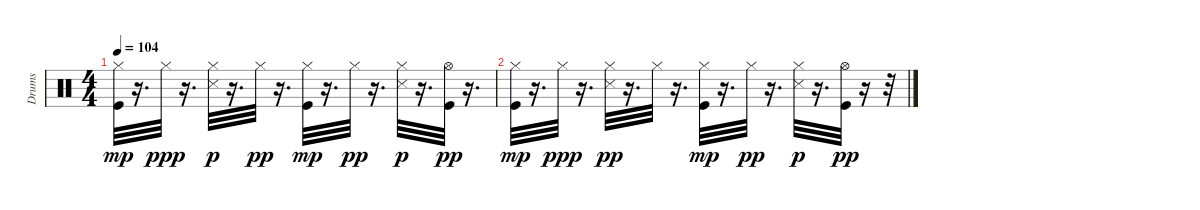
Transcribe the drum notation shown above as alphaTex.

\track ("Drums" "Drums") {instrument percussion}
\staff {score}
\articulation defaults
\ts (4 4)
\tempo 104
\clef neutral
\ks c
("Kick (hit)" "Hi-Hat (closed)").32{dy mp} r.16{d} "Hi-Hat (closed)".32{dy ppp} r.16{d} ("Snare (side stick) 3" "Hi-Hat (closed)").32{dy p} r.16{d} "Hi-Hat (closed)".32{dy pp} r.16{d} ("Kick (hit)" "Hi-Hat (closed)").32{dy mp} r.16{d} "Hi-Hat (closed)".32{dy pp} r.16{d} ("Snare (side stick) 3" "Hi-Hat (closed)").32{dy p} r.16{d} ("Kick (hit)" "Hi-Hat (open)").32{dy pp} r.16{d} |
("Kick (hit)" "Hi-Hat (closed)").32{dy mp} r.16{d} "Hi-Hat (closed)".32{dy ppp} r.16{d} ("Snare (side stick) 3" "Hi-Hat (closed)").32{dy pp} r.16{d} "Hi-Hat (closed)".32 r.16{d} ("Kick (hit)" "Hi-Hat (closed)").32{dy mp} r.16{d} "Hi-Hat (closed)".32{dy pp} r.16{d} ("Snare (side stick) 3" "Hi-Hat (closed)").32{dy p} r.16{d} ("Kick (hit)" "Hi-Hat (open)").32{dy pp} r.16 r.32
